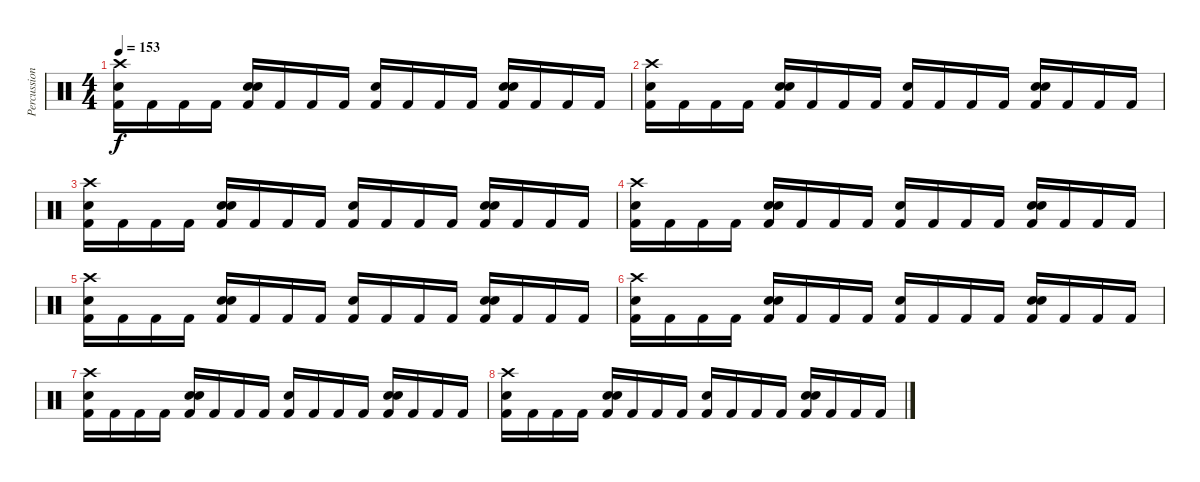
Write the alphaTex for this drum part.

\track ("Percussion" "Percussion") {instrument percussion}
\staff {score}
\articulation defaults
\ts (4 4)
\tempo 153
\clef neutral
\ks c
("Crash high (hit)" "Snare (hit) 2" "Kick (hit) 2").16{dy f} "Kick (hit) 2".16 "Kick (hit) 2".16 "Kick (hit) 2".16 ("Hand Clap (hit)" "Snare (hit) 2" "Kick (hit) 2").16 "Kick (hit) 2".16 "Kick (hit) 2".16 "Kick (hit) 2".16 ("Snare (hit) 2" "Kick (hit) 2").16 "Kick (hit) 2".16 "Kick (hit) 2".16 "Kick (hit) 2".16 ("Hand Clap (hit)" "Snare (hit) 2" "Kick (hit) 2").16 "Kick (hit) 2".16 "Kick (hit) 2".16 "Kick (hit) 2".16 |
("Crash high (hit)" "Snare (hit) 2" "Kick (hit) 2").16 "Kick (hit) 2".16 "Kick (hit) 2".16 "Kick (hit) 2".16 ("Hand Clap (hit)" "Snare (hit) 2" "Kick (hit) 2").16 "Kick (hit) 2".16 "Kick (hit) 2".16 "Kick (hit) 2".16 ("Snare (hit) 2" "Kick (hit) 2").16 "Kick (hit) 2".16 "Kick (hit) 2".16 "Kick (hit) 2".16 ("Hand Clap (hit)" "Snare (hit) 2" "Kick (hit) 2").16 "Kick (hit) 2".16 "Kick (hit) 2".16 "Kick (hit) 2".16 |
("Crash high (hit)" "Snare (hit) 2" "Kick (hit) 2").16 "Kick (hit) 2".16 "Kick (hit) 2".16 "Kick (hit) 2".16 ("Hand Clap (hit)" "Snare (hit) 2" "Kick (hit) 2").16 "Kick (hit) 2".16 "Kick (hit) 2".16 "Kick (hit) 2".16 ("Snare (hit) 2" "Kick (hit) 2").16 "Kick (hit) 2".16 "Kick (hit) 2".16 "Kick (hit) 2".16 ("Hand Clap (hit)" "Snare (hit) 2" "Kick (hit) 2").16 "Kick (hit) 2".16 "Kick (hit) 2".16 "Kick (hit) 2".16 |
("Crash high (hit)" "Snare (hit) 2" "Kick (hit) 2").16 "Kick (hit) 2".16 "Kick (hit) 2".16 "Kick (hit) 2".16 ("Hand Clap (hit)" "Snare (hit) 2" "Kick (hit) 2").16 "Kick (hit) 2".16 "Kick (hit) 2".16 "Kick (hit) 2".16 ("Snare (hit) 2" "Kick (hit) 2").16 "Kick (hit) 2".16 "Kick (hit) 2".16 "Kick (hit) 2".16 ("Hand Clap (hit)" "Snare (hit) 2" "Kick (hit) 2").16 "Kick (hit) 2".16 "Kick (hit) 2".16 "Kick (hit) 2".16 |
("Crash high (hit)" "Snare (hit) 2" "Kick (hit) 2").16{volume 9} "Kick (hit) 2".16 "Kick (hit) 2".16 "Kick (hit) 2".16 ("Hand Clap (hit)" "Snare (hit) 2" "Kick (hit) 2").16 "Kick (hit) 2".16 "Kick (hit) 2".16 "Kick (hit) 2".16 ("Snare (hit) 2" "Kick (hit) 2").16 "Kick (hit) 2".16 "Kick (hit) 2".16 "Kick (hit) 2".16 ("Hand Clap (hit)" "Snare (hit) 2" "Kick (hit) 2").16 "Kick (hit) 2".16 "Kick (hit) 2".16 "Kick (hit) 2".16 |
("Crash high (hit)" "Snare (hit) 2" "Kick (hit) 2").16{volume 6} "Kick (hit) 2".16 "Kick (hit) 2".16 "Kick (hit) 2".16 ("Hand Clap (hit)" "Snare (hit) 2" "Kick (hit) 2").16 "Kick (hit) 2".16 "Kick (hit) 2".16 "Kick (hit) 2".16 ("Snare (hit) 2" "Kick (hit) 2").16 "Kick (hit) 2".16 "Kick (hit) 2".16 "Kick (hit) 2".16 ("Hand Clap (hit)" "Snare (hit) 2" "Kick (hit) 2").16 "Kick (hit) 2".16 "Kick (hit) 2".16 "Kick (hit) 2".16 |
("Crash high (hit)" "Snare (hit) 2" "Kick (hit) 2").16{volume 2} "Kick (hit) 2".16 "Kick (hit) 2".16 "Kick (hit) 2".16 ("Hand Clap (hit)" "Snare (hit) 2" "Kick (hit) 2").16 "Kick (hit) 2".16 "Kick (hit) 2".16 "Kick (hit) 2".16 ("Snare (hit) 2" "Kick (hit) 2").16 "Kick (hit) 2".16 "Kick (hit) 2".16 "Kick (hit) 2".16 ("Hand Clap (hit)" "Snare (hit) 2" "Kick (hit) 2").16 "Kick (hit) 2".16 "Kick (hit) 2".16 "Kick (hit) 2".16 |
("Crash high (hit)" "Snare (hit) 2" "Kick (hit) 2").16{volume 0} "Kick (hit) 2".16 "Kick (hit) 2".16 "Kick (hit) 2".16 ("Hand Clap (hit)" "Snare (hit) 2" "Kick (hit) 2").16 "Kick (hit) 2".16 "Kick (hit) 2".16 "Kick (hit) 2".16 ("Snare (hit) 2" "Kick (hit) 2").16 "Kick (hit) 2".16 "Kick (hit) 2".16 "Kick (hit) 2".16 ("Hand Clap (hit)" "Snare (hit) 2" "Kick (hit) 2").16 "Kick (hit) 2".16 "Kick (hit) 2".16 "Kick (hit) 2".16
